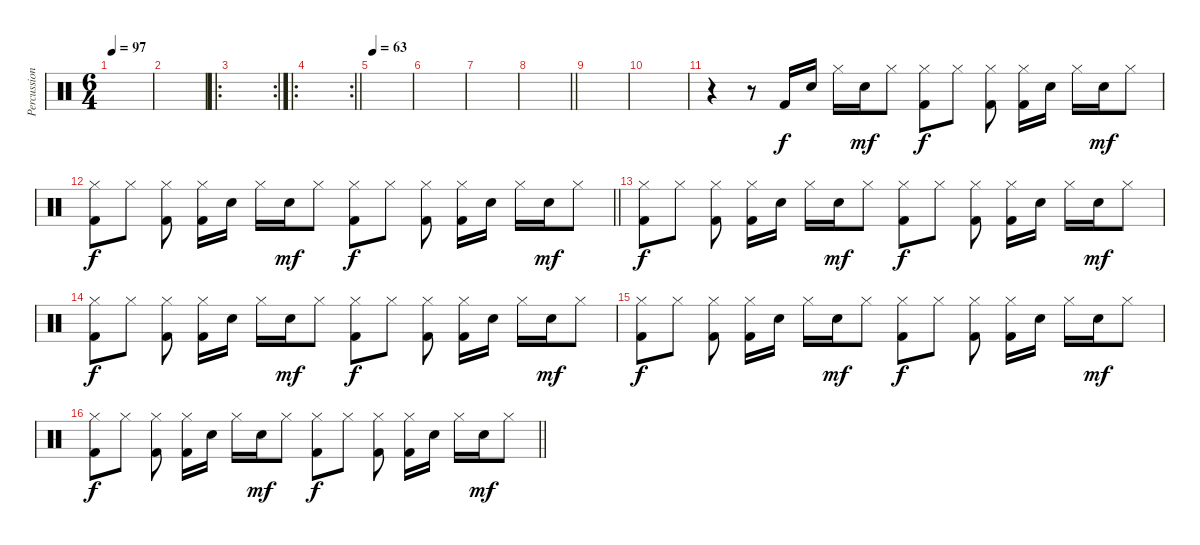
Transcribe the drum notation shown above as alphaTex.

\track ("Percussion" "Percussion") {instrument percussion}
\staff {score}
\articulation defaults
\ts (6 4)
\tempo 97
\clef neutral
\ks c
|
|
\ro
\rc 2
|
\ro
\rc 2
\barLineRight lightlight
|
\tempo 63
|
|
|
\barLineRight lightlight
|
|
|
r.4 r.8 "Kick (hit) 2".16{dy f} "Electric Snare (hit)".16 "Hi-Hat (closed)".16 "Electric Snare (hit)".16{dy mf} "Hi-Hat (closed)".8 ("Hi-Hat (closed)" "Kick (hit) 2").8{dy f} "Hi-Hat (closed)".8 ("Hi-Hat (closed)" "Kick (hit) 2").8{beam split} ("Hi-Hat (closed)" "Kick (hit) 2").16 "Electric Snare (hit)".16 "Hi-Hat (closed)".16 "Electric Snare (hit)".16{dy mf} "Hi-Hat (closed)".8 |
\barLineRight lightlight
("Hi-Hat (closed)" "Kick (hit) 2").8{dy f} "Hi-Hat (closed)".8 ("Hi-Hat (closed)" "Kick (hit) 2").8{beam split} ("Hi-Hat (closed)" "Kick (hit) 2").16 "Electric Snare (hit)".16 "Hi-Hat (closed)".16 "Electric Snare (hit)".16{dy mf} "Hi-Hat (closed)".8 ("Hi-Hat (closed)" "Kick (hit) 2").8{dy f} "Hi-Hat (closed)".8 ("Hi-Hat (closed)" "Kick (hit) 2").8{beam split} ("Hi-Hat (closed)" "Kick (hit) 2").16 "Electric Snare (hit)".16 "Hi-Hat (closed)".16 "Electric Snare (hit)".16{dy mf} "Hi-Hat (closed)".8 |
("Hi-Hat (closed)" "Kick (hit) 2").8{dy f} "Hi-Hat (closed)".8 ("Hi-Hat (closed)" "Kick (hit) 2").8{beam split} ("Hi-Hat (closed)" "Kick (hit) 2").16 "Electric Snare (hit)".16 "Hi-Hat (closed)".16 "Electric Snare (hit)".16{dy mf} "Hi-Hat (closed)".8 ("Hi-Hat (closed)" "Kick (hit) 2").8{dy f} "Hi-Hat (closed)".8 ("Hi-Hat (closed)" "Kick (hit) 2").8{beam split} ("Hi-Hat (closed)" "Kick (hit) 2").16 "Electric Snare (hit)".16 "Hi-Hat (closed)".16 "Electric Snare (hit)".16{dy mf} "Hi-Hat (closed)".8 |
("Hi-Hat (closed)" "Kick (hit) 2").8{dy f} "Hi-Hat (closed)".8 ("Hi-Hat (closed)" "Kick (hit) 2").8{beam split} ("Hi-Hat (closed)" "Kick (hit) 2").16 "Electric Snare (hit)".16 "Hi-Hat (closed)".16 "Electric Snare (hit)".16{dy mf} "Hi-Hat (closed)".8 ("Hi-Hat (closed)" "Kick (hit) 2").8{dy f} "Hi-Hat (closed)".8 ("Hi-Hat (closed)" "Kick (hit) 2").8{beam split} ("Hi-Hat (closed)" "Kick (hit) 2").16 "Electric Snare (hit)".16 "Hi-Hat (closed)".16 "Electric Snare (hit)".16{dy mf} "Hi-Hat (closed)".8 |
("Hi-Hat (closed)" "Kick (hit) 2").8{dy f} "Hi-Hat (closed)".8 ("Hi-Hat (closed)" "Kick (hit) 2").8{beam split} ("Hi-Hat (closed)" "Kick (hit) 2").16 "Electric Snare (hit)".16 "Hi-Hat (closed)".16 "Electric Snare (hit)".16{dy mf} "Hi-Hat (closed)".8 ("Hi-Hat (closed)" "Kick (hit) 2").8{dy f} "Hi-Hat (closed)".8 ("Hi-Hat (closed)" "Kick (hit) 2").8{beam split} ("Hi-Hat (closed)" "Kick (hit) 2").16 "Electric Snare (hit)".16 "Hi-Hat (closed)".16 "Electric Snare (hit)".16{dy mf} "Hi-Hat (closed)".8 |
\barLineRight lightlight
("Hi-Hat (closed)" "Kick (hit) 2").8{dy f} "Hi-Hat (closed)".8 ("Hi-Hat (closed)" "Kick (hit) 2").8{beam split} ("Hi-Hat (closed)" "Kick (hit) 2").16 "Electric Snare (hit)".16 "Hi-Hat (closed)".16 "Electric Snare (hit)".16{dy mf} "Hi-Hat (closed)".8 ("Hi-Hat (closed)" "Kick (hit) 2").8{dy f} "Hi-Hat (closed)".8 ("Hi-Hat (closed)" "Kick (hit) 2").8{beam split} ("Hi-Hat (closed)" "Kick (hit) 2").16 "Electric Snare (hit)".16 "Hi-Hat (closed)".16 "Electric Snare (hit)".16{dy mf} "Hi-Hat (closed)".8
